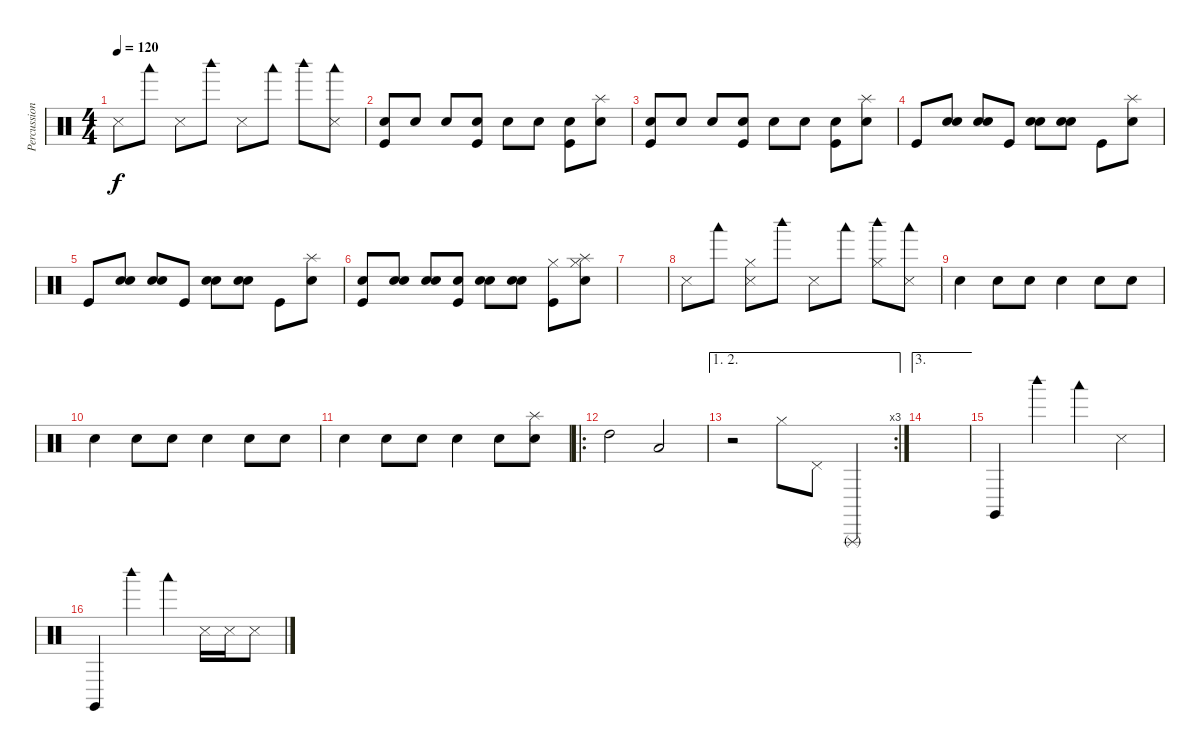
\track ("Percussions" "Percussion") {instrument percussion}
\staff {score}
\articulation defaults
\ts (4 4)
\tempo 120
\clef neutral
\ks c "Snare (side stick) 3".8{dy f} "Woodblock low (hit)".8 "Snare (side stick) 3".8 "Woodblock high (hit)".8 "Snare (side stick) 3".8 "Woodblock low (hit)".8 "Woodblock high (hit)".8
("Woodblock low (hit)" "Snare (side stick) 3").8 |
("Kick (hit)" "Hand Clap (hit)").8 "Snare (hit) 2".8 "Snare (hit) 2".8 ("Kick (hit)" "Hand Clap (hit)").8 "Snare (hit) 2".8 "Snare (hit) 2".8 ("Kick (hit)" "Hand Clap (hit)").8 ("Splash (hit)" "Snare (hit) 2").8 |
("Kick (hit)" "Hand Clap (hit)").8 "Snare (hit) 2".8 "Snare (hit) 2".8 ("Kick (hit)" "Hand Clap (hit)").8 "Snare (hit) 2".8 "Snare (hit) 2".8 ("Kick (hit)" "Hand Clap (hit)").8 ("Splash (hit)" "Snare (hit) 2").8 |
"Kick (hit)".8 ("Snare (hit) 2" "Hand Clap (hit)").8 ("Snare (hit) 2" "Hand Clap (hit)").8 "Kick (hit)".8 ("Snare (hit) 2" "Hand Clap (hit)").8 ("Snare (hit) 2" "Hand Clap (hit)").8 "Kick (hit)".8 ("Splash (hit)" "Snare (hit) 2").8 |
"Kick (hit)".8 ("Snare (hit) 2" "Hand Clap (hit)").8 ("Snare (hit) 2" "Hand Clap (hit)").8 "Kick (hit)".8 ("Snare (hit) 2" "Hand Clap (hit)").8 ("Snare (hit) 2" "Hand Clap (hit)").8 "Kick (hit)".8 ("Splash (hit)" "Snare (hit) 2").8 |
("Kick (hit)" "Hand Clap (hit)").8 ("Snare (hit) 2" "Hand Clap (hit)").8 ("Snare (hit) 2" "Hand Clap (hit)").8 ("Kick (hit)" "Hand Clap (hit)").8 ("Snare (hit) 2" "Hand Clap (hit)").8 ("Snare (hit) 2" "Hand Clap (hit)").8 ("Kick (hit)" "Hi-Hat (closed)").8 ("Splash (hit)" "Snare (hit) 2" "Hi-Hat (closed)").8 |
|
"Snare (side stick) 3".8 "Woodblock low (hit)".8 ("Snare (side stick) 3" "Hi-Hat (closed)").8 "Woodblock high (hit)".8 "Snare (side stick) 3".8 "Woodblock low (hit)".8 ("Woodblock high (hit)" "Hi-Hat (closed)").8 ("Woodblock low (hit)" "Snare (side stick) 3").8 |
"Electric Snare (hit)".4 "Hand Clap (hit)".8 "Hand Clap (hit)".8 "Electric Snare (hit)".4 "Hand Clap (hit)".8 "Hand Clap (hit)".8 |
"Electric Snare (hit)".4 "Hand Clap (hit)".8 "Hand Clap (hit)".8 "Electric Snare (hit)".4 "Hand Clap (hit)".8 "Hand Clap (hit)".8 |
"Electric Snare (hit)".4 "Hand Clap (hit)".8 "Hand Clap (hit)".8 "Electric Snare (hit)".4 "Snare (hit) 2".8 ("Snare (hit) 2" "Splash (hit)").8 |
\ro "High Tom (hit)".2 "Low Tom (hit)".2
|
\ae (1 2)
\rc 3
r.2 "Hi-Hat (closed)".8 "Pedal Hi-Hat (hit)".8 "Triangle (rnute)".4 |
\ae 3
|
"Claves (hit)".4 "Woodblock high (hit)".4 "Woodblock low (hit)".4 "Snare (side stick) 3".4 |
"Claves (hit)".4 "Woodblock high (hit)".4 "Woodblock low (hit)".4 "Snare (side stick) 3".16 "Snare (side stick) 3".16 "Snare (side stick) 3".8
